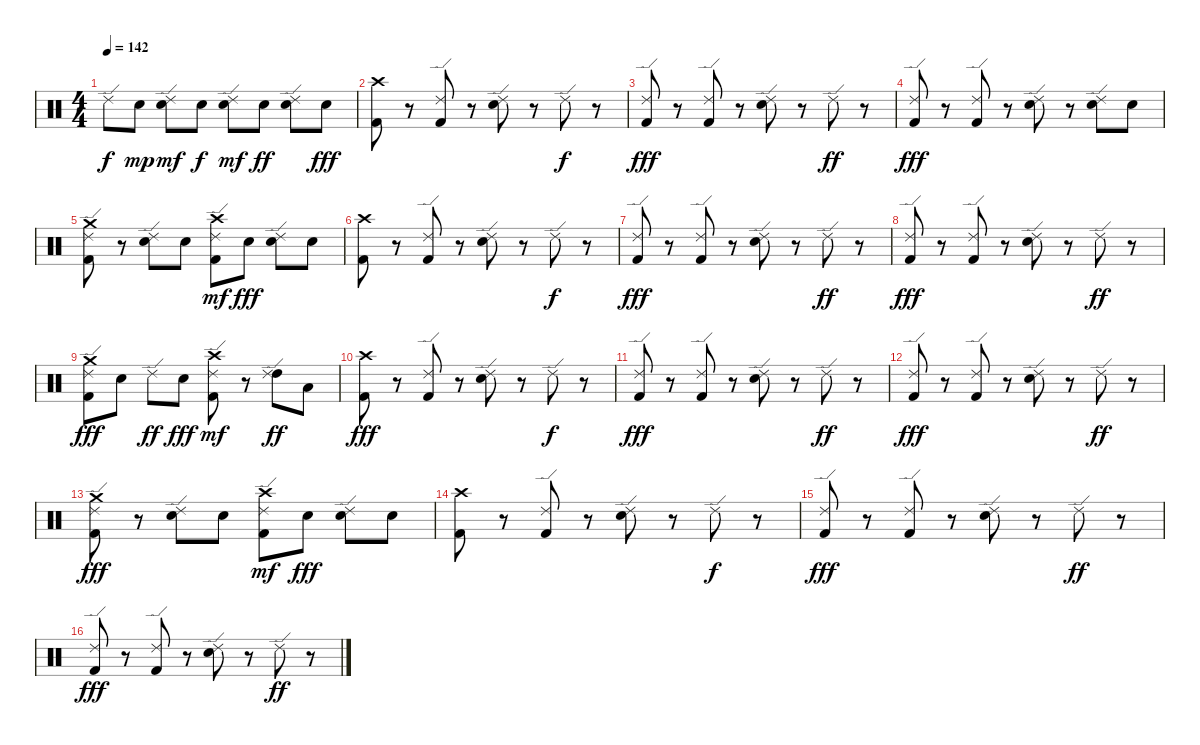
\track "" {instrument percussion}
\staff {score}
\articulation defaults
\ts (4 4)
\tempo 142
\clef neutral
\ks c "Ride (edge) 2".8{dy f} "Electric Snare (hit)".8{dy mp}
("Electric Snare (hit)" "Ride (edge) 2").8{dy mf} "Electric Snare (hit)".8{dy f} ("Electric Snare (hit)" "Ride (edge) 2").8{dy mf} "Electric Snare (hit)".8{dy ff} ("Electric Snare (hit)" "Ride (edge) 2").8 "Electric Snare (hit)".8{dy fff} |
("Kick (hit) 2" "Crash high (hit)").8 r.8 ("Ride (edge) 2" "Kick (hit) 2").8 r.8 ("Ride (edge) 2" "Electric Snare (hit)").8 r.8 "Ride (edge) 2".8{dy f} r.8 |
("Ride (edge) 2" "Kick (hit) 2").8{dy fff} r.8 ("Ride (edge) 2" "Kick (hit) 2").8 r.8 ("Ride (edge) 2" "Electric Snare (hit)").8 r.8 "Ride (edge) 2".8{dy ff} r.8 |
("Ride (edge) 2" "Kick (hit) 2").8{dy fff} r.8 ("Ride (edge) 2" "Kick (hit) 2").8 r.8 ("Ride (edge) 2" "Electric Snare (hit)").8 r.8 ("Ride (edge) 2" "Electric Snare (hit)").8 "Electric Snare (hit)".8 |
("Crash medium (hit)" "Ride (edge) 2" "Kick (hit) 2").8 r.8 ("Ride (edge) 2" "Electric Snare (hit)").8 "Electric Snare (hit)".8 ("Ride (edge) 2" "Kick (hit) 2" "Crash high (hit)").8{dy mf} "Electric Snare (hit)".8{dy fff} ("Ride (edge) 2" "Electric Snare (hit)").8 "Electric Snare (hit)".8 |
("Kick (hit) 2" "Crash high (hit)").8 r.8 ("Ride (edge) 2" "Kick (hit) 2").8 r.8 ("Ride (edge) 2" "Electric Snare (hit)").8 r.8 "Ride (edge) 2".8{dy f} r.8 |
("Ride (edge) 2" "Kick (hit) 2").8{dy fff} r.8 ("Ride (edge) 2" "Kick (hit) 2").8 r.8 ("Ride (edge) 2" "Electric Snare (hit)").8 r.8 "Ride (edge) 2".8{dy ff} r.8 |
("Ride (edge) 2" "Kick (hit) 2").8{dy fff} r.8 ("Ride (edge) 2" "Kick (hit) 2").8 r.8 ("Ride (edge) 2" "Electric Snare (hit)").8 r.8 "Ride (edge) 2".8{dy ff} r.8 |
("Crash medium (hit)" "Ride (edge) 2" "Kick (hit) 2").8{dy fff} "Electric Snare (hit)".8 "Ride (edge) 2".8{dy ff} "Electric Snare (hit)".8{dy fff} ("Ride (edge) 2" "Kick (hit) 2" "Crash high (hit)").8{dy mf} r.8 ("High Tom (hit)" "Ride (edge) 2").8{dy ff} "Low Tom (hit)".8 |
("Kick (hit) 2" "Crash high (hit)").8{dy fff} r.8 ("Ride (edge) 2" "Kick (hit) 2").8 r.8 ("Ride (edge) 2" "Electric Snare (hit)").8 r.8 "Ride (edge) 2".8{dy f} r.8 |
("Ride (edge) 2" "Kick (hit) 2").8{dy fff} r.8 ("Ride (edge) 2" "Kick (hit) 2").8 r.8 ("Ride (edge) 2" "Electric Snare (hit)").8 r.8 "Ride (edge) 2".8{dy ff} r.8 |
("Ride (edge) 2" "Kick (hit) 2").8{dy fff} r.8 ("Ride (edge) 2" "Kick (hit) 2").8 r.8 ("Ride (edge) 2" "Electric Snare (hit)").8 r.8 "Ride (edge) 2".8{dy ff} r.8 |
("Crash medium (hit)" "Ride (edge) 2" "Kick (hit) 2").8{dy fff} r.8 ("Ride (edge) 2" "Electric Snare (hit)").8 "Electric Snare (hit)".8 ("Ride (edge) 2" "Kick (hit) 2" "Crash high (hit)").8{dy mf} "Electric Snare (hit)".8{dy fff} ("Ride (edge) 2" "Electric Snare (hit)").8 "Electric Snare (hit)".8 |
("Kick (hit) 2" "Crash high (hit)").8 r.8 ("Ride (edge) 2" "Kick (hit) 2").8 r.8 ("Ride (edge) 2" "Electric Snare (hit)").8 r.8 "Ride (edge) 2".8{dy f} r.8 |
("Ride (edge) 2" "Kick (hit) 2").8{dy fff} r.8 ("Ride (edge) 2" "Kick (hit) 2").8 r.8 ("Ride (edge) 2" "Electric Snare (hit)").8 r.8 "Ride (edge) 2".8{dy ff} r.8 |
("Ride (edge) 2" "Kick (hit) 2").8{dy fff} r.8 ("Ride (edge) 2" "Kick (hit) 2").8 r.8 ("Ride (edge) 2" "Electric Snare (hit)").8 r.8 "Ride (edge) 2".8{dy ff} r.8
